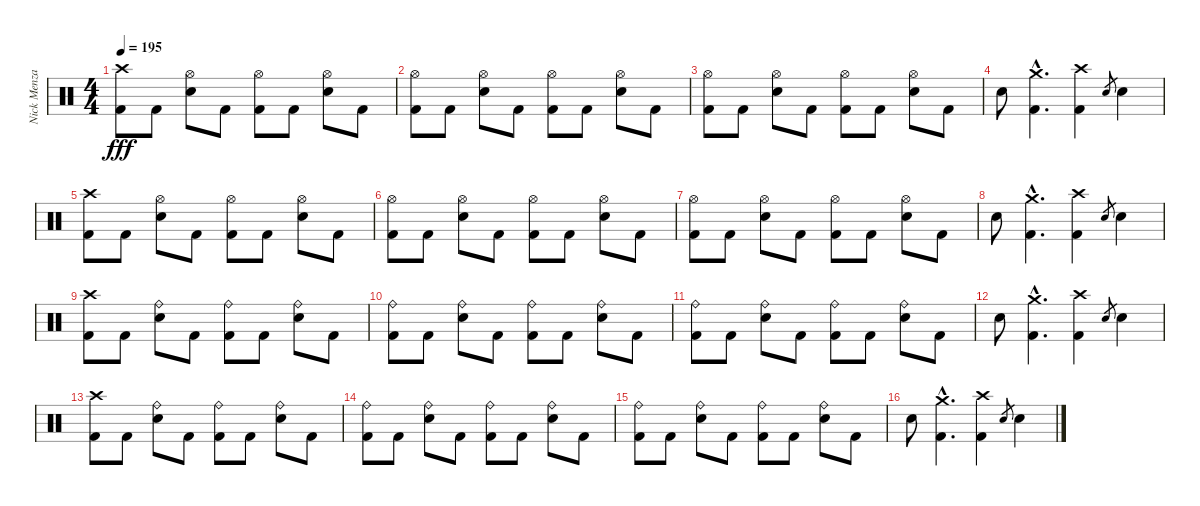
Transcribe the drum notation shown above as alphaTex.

\track ("Nick Menza" "Nick Menza") {instrument percussion}
\staff {score}
\articulation defaults
\ts (4 4)
\tempo 195
\clef neutral
\ks c
("Kick (hit) 2" "Crash high (hit)").8{dy fff} "Kick (hit) 2".8 ("Electric Snare (hit)" "Hi-Hat (open)").8 "Kick (hit) 2".8 ("Kick (hit) 2" "Hi-Hat (open)").8 "Kick (hit) 2".8 ("Electric Snare (hit)" "Hi-Hat (open)").8 "Kick (hit) 2".8 |
("Kick (hit) 2" "Hi-Hat (open)").8 "Kick (hit) 2".8 ("Electric Snare (hit)" "Hi-Hat (open)").8 "Kick (hit) 2".8 ("Kick (hit) 2" "Hi-Hat (open)").8 "Kick (hit) 2".8 ("Electric Snare (hit)" "Hi-Hat (open)").8 "Kick (hit) 2".8 |
("Kick (hit) 2" "Hi-Hat (open)").8 "Kick (hit) 2".8 ("Electric Snare (hit)" "Hi-Hat (open)").8 "Kick (hit) 2".8 ("Kick (hit) 2" "Hi-Hat (open)").8 "Kick (hit) 2".8 ("Electric Snare (hit)" "Hi-Hat (open)").8 "Kick (hit) 2".8 |
"Electric Snare (hit)".8 ("Kick (hit) 2"{hac} "Crash medium (hit)"{hac}).4{d} ("Kick (hit) 2" "Crash high (hit)").4 "Electric Snare (hit)".8{gr} "Electric Snare (hit)".4 |
("Kick (hit) 2" "Crash high (hit)").8 "Kick (hit) 2".8 ("Electric Snare (hit)" "Hi-Hat (open)").8 "Kick (hit) 2".8 ("Kick (hit) 2" "Hi-Hat (open)").8 "Kick (hit) 2".8 ("Electric Snare (hit)" "Hi-Hat (open)").8 "Kick (hit) 2".8 |
("Kick (hit) 2" "Hi-Hat (open)").8 "Kick (hit) 2".8 ("Electric Snare (hit)" "Hi-Hat (open)").8 "Kick (hit) 2".8 ("Kick (hit) 2" "Hi-Hat (open)").8 "Kick (hit) 2".8 ("Electric Snare (hit)" "Hi-Hat (open)").8 "Kick (hit) 2".8 |
("Kick (hit) 2" "Hi-Hat (open)").8 "Kick (hit) 2".8 ("Electric Snare (hit)" "Hi-Hat (open)").8 "Kick (hit) 2".8 ("Kick (hit) 2" "Hi-Hat (open)").8 "Kick (hit) 2".8 ("Electric Snare (hit)" "Hi-Hat (open)").8 "Kick (hit) 2".8 |
"Electric Snare (hit)".8 ("Kick (hit) 2"{hac} "Crash medium (hit)"{hac}).4{d} ("Kick (hit) 2" "Crash high (hit)").4 "Electric Snare (hit)".8{gr} "Electric Snare (hit)".4 |
("Kick (hit) 2" "Crash high (hit)").8 "Kick (hit) 2".8 ("Electric Snare (hit)" "Ride (bell)").8 "Kick (hit) 2".8 ("Kick (hit) 2" "Ride (bell)").8 "Kick (hit) 2".8 ("Electric Snare (hit)" "Ride (bell)").8 "Kick (hit) 2".8 |
("Kick (hit) 2" "Ride (bell)").8 "Kick (hit) 2".8 ("Electric Snare (hit)" "Ride (bell)").8 "Kick (hit) 2".8 ("Kick (hit) 2" "Ride (bell)").8 "Kick (hit) 2".8 ("Electric Snare (hit)" "Ride (bell)").8 "Kick (hit) 2".8 |
("Kick (hit) 2" "Ride (bell)").8 "Kick (hit) 2".8 ("Electric Snare (hit)" "Ride (bell)").8 "Kick (hit) 2".8 ("Kick (hit) 2" "Ride (bell)").8 "Kick (hit) 2".8 ("Electric Snare (hit)" "Ride (bell)").8 "Kick (hit) 2".8 |
"Electric Snare (hit)".8 ("Kick (hit) 2"{hac} "Crash medium (hit)"{hac}).4{d} ("Kick (hit) 2" "Crash high (hit)").4 "Electric Snare (hit)".8{gr} "Electric Snare (hit)".4 |
("Kick (hit) 2" "Crash high (hit)").8 "Kick (hit) 2".8 ("Electric Snare (hit)" "Ride (bell)").8 "Kick (hit) 2".8 ("Kick (hit) 2" "Ride (bell)").8 "Kick (hit) 2".8 ("Electric Snare (hit)" "Ride (bell)").8 "Kick (hit) 2".8 |
("Kick (hit) 2" "Ride (bell)").8 "Kick (hit) 2".8 ("Electric Snare (hit)" "Ride (bell)").8 "Kick (hit) 2".8 ("Kick (hit) 2" "Ride (bell)").8 "Kick (hit) 2".8 ("Electric Snare (hit)" "Ride (bell)").8 "Kick (hit) 2".8 |
("Kick (hit) 2" "Ride (bell)").8 "Kick (hit) 2".8 ("Electric Snare (hit)" "Ride (bell)").8 "Kick (hit) 2".8 ("Kick (hit) 2" "Ride (bell)").8 "Kick (hit) 2".8 ("Electric Snare (hit)" "Ride (bell)").8 "Kick (hit) 2".8 |
"Electric Snare (hit)".8 ("Kick (hit) 2"{hac} "Crash medium (hit)"{hac}).4{d} ("Kick (hit) 2" "Crash high (hit)").4 "Electric Snare (hit)".8{gr} "Electric Snare (hit)".4
